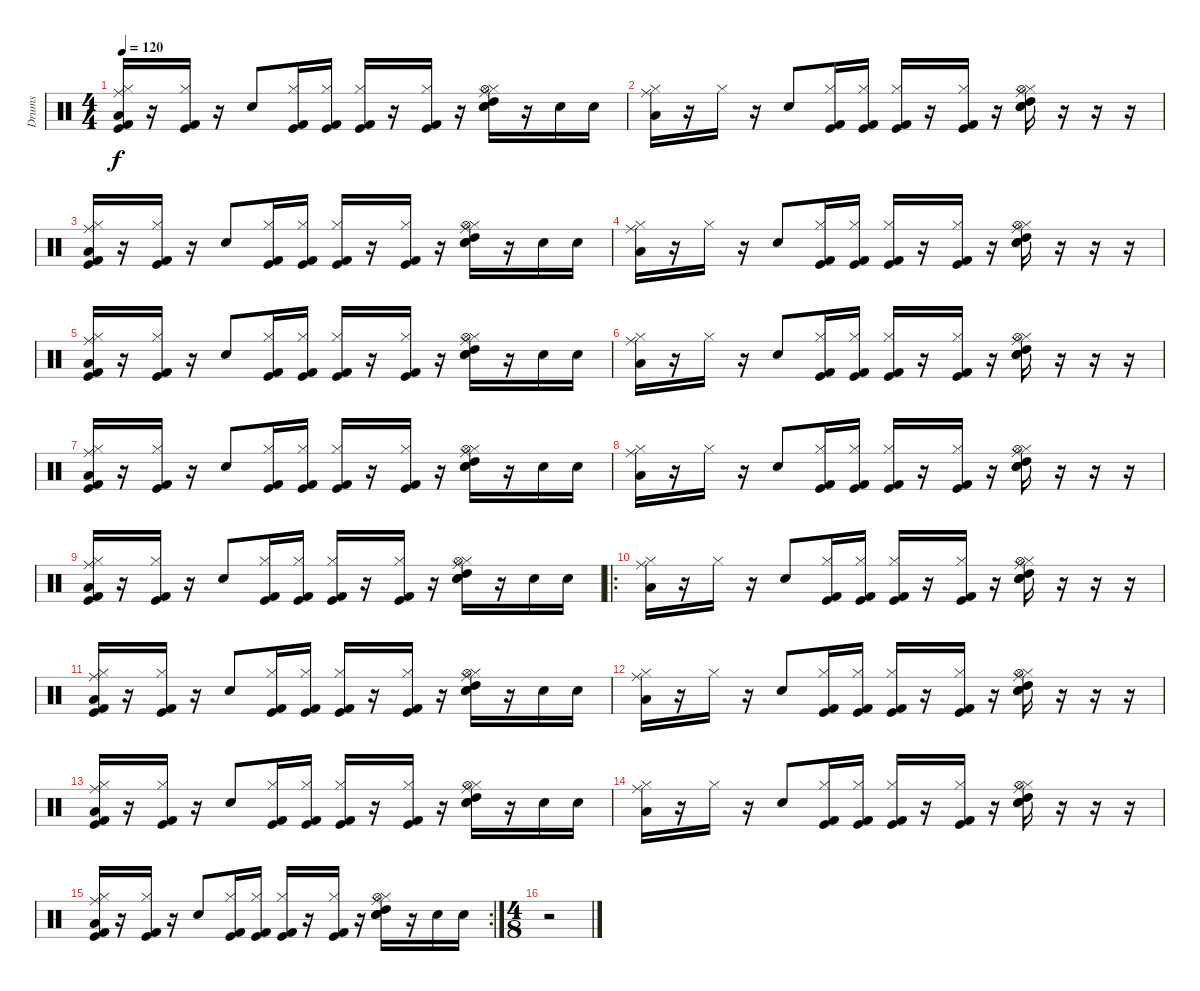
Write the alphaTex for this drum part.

\track ("Drums" "Drums") {instrument percussion}
\staff {score}
\articulation defaults
\ts (4 4)
\tempo 120
\clef neutral
\ks c
("Kick (hit)" "Hi-Hat (closed)" "Ride (middle)" "Low Tom (hit)" "Kick (hit) 2").16{dy f} r.16 ("Kick (hit)" "Hi-Hat (closed)" "Kick (hit) 2").16 r.16 "Snare (hit) 2".8 ("Kick (hit)" "Hi-Hat (closed)" "Kick (hit) 2").16 ("Kick (hit)" "Hi-Hat (closed)" "Kick (hit) 2").16 ("Kick (hit)" "Hi-Hat (closed)" "Kick (hit) 2").16 r.16 ("Kick (hit)" "Hi-Hat (closed)" "Kick (hit) 2").16 r.16 ("Snare (hit) 2" "Ride (middle)" "Hi-Hat (closed)" "Hi-Hat (open)" "High Tom (hit)" "Electric Snare (hit)").16 r.16 "Electric Snare (hit)".16 "Electric Snare (hit)".16 |
("Hi-Hat (closed)" "Ride (middle)" "Low Tom (hit)").16 r.16 "Hi-Hat (closed)".16 r.16 "Snare (hit) 2".8 ("Kick (hit)" "Hi-Hat (closed)" "Kick (hit) 2").16 ("Kick (hit)" "Hi-Hat (closed)" "Kick (hit) 2").16 ("Kick (hit)" "Hi-Hat (closed)" "Kick (hit) 2").16 r.16 ("Kick (hit)" "Hi-Hat (closed)" "Kick (hit) 2").16 r.16 ("Snare (hit) 2" "Ride (middle)" "Hi-Hat (closed)" "Hi-Hat (open)" "High Tom (hit)" "Electric Snare (hit)").16 r.16 r.16 r.16 |
("Kick (hit)" "Hi-Hat (closed)" "Ride (middle)" "Low Tom (hit)" "Kick (hit) 2").16 r.16 ("Kick (hit)" "Hi-Hat (closed)" "Kick (hit) 2").16 r.16 "Snare (hit) 2".8 ("Kick (hit)" "Hi-Hat (closed)" "Kick (hit) 2").16 ("Kick (hit)" "Hi-Hat (closed)" "Kick (hit) 2").16 ("Kick (hit)" "Hi-Hat (closed)" "Kick (hit) 2").16 r.16 ("Kick (hit)" "Hi-Hat (closed)" "Kick (hit) 2").16 r.16 ("Snare (hit) 2" "Ride (middle)" "Hi-Hat (closed)" "Hi-Hat (open)" "High Tom (hit)" "Electric Snare (hit)").16 r.16 "Electric Snare (hit)".16 "Electric Snare (hit)".16 |
("Hi-Hat (closed)" "Ride (middle)" "Low Tom (hit)").16 r.16 "Hi-Hat (closed)".16 r.16 "Snare (hit) 2".8 ("Kick (hit)" "Hi-Hat (closed)" "Kick (hit) 2").16 ("Kick (hit)" "Hi-Hat (closed)" "Kick (hit) 2").16 ("Kick (hit)" "Hi-Hat (closed)" "Kick (hit) 2").16 r.16 ("Kick (hit)" "Hi-Hat (closed)" "Kick (hit) 2").16 r.16 ("Snare (hit) 2" "Ride (middle)" "Hi-Hat (closed)" "Hi-Hat (open)" "High Tom (hit)" "Electric Snare (hit)").16 r.16 r.16 r.16 |
("Kick (hit)" "Hi-Hat (closed)" "Ride (middle)" "Low Tom (hit)" "Kick (hit) 2").16 r.16 ("Kick (hit)" "Hi-Hat (closed)" "Kick (hit) 2").16 r.16 "Snare (hit) 2".8 ("Kick (hit)" "Hi-Hat (closed)" "Kick (hit) 2").16 ("Kick (hit)" "Hi-Hat (closed)" "Kick (hit) 2").16 ("Kick (hit)" "Hi-Hat (closed)" "Kick (hit) 2").16 r.16 ("Kick (hit)" "Hi-Hat (closed)" "Kick (hit) 2").16 r.16 ("Snare (hit) 2" "Ride (middle)" "Hi-Hat (closed)" "Hi-Hat (open)" "High Tom (hit)" "Electric Snare (hit)").16 r.16 "Electric Snare (hit)".16 "Electric Snare (hit)".16 |
("Hi-Hat (closed)" "Ride (middle)" "Low Tom (hit)").16 r.16 "Hi-Hat (closed)".16 r.16 "Snare (hit) 2".8 ("Kick (hit)" "Hi-Hat (closed)" "Kick (hit) 2").16 ("Kick (hit)" "Hi-Hat (closed)" "Kick (hit) 2").16 ("Kick (hit)" "Hi-Hat (closed)" "Kick (hit) 2").16 r.16 ("Kick (hit)" "Hi-Hat (closed)" "Kick (hit) 2").16 r.16 ("Snare (hit) 2" "Ride (middle)" "Hi-Hat (closed)" "Hi-Hat (open)" "High Tom (hit)" "Electric Snare (hit)").16 r.16 r.16 r.16 |
("Kick (hit)" "Hi-Hat (closed)" "Ride (middle)" "Low Tom (hit)" "Kick (hit) 2").16 r.16 ("Kick (hit)" "Hi-Hat (closed)" "Kick (hit) 2").16 r.16 "Snare (hit) 2".8 ("Kick (hit)" "Hi-Hat (closed)" "Kick (hit) 2").16 ("Kick (hit)" "Hi-Hat (closed)" "Kick (hit) 2").16 ("Kick (hit)" "Hi-Hat (closed)" "Kick (hit) 2").16 r.16 ("Kick (hit)" "Hi-Hat (closed)" "Kick (hit) 2").16 r.16 ("Snare (hit) 2" "Ride (middle)" "Hi-Hat (closed)" "Hi-Hat (open)" "High Tom (hit)" "Electric Snare (hit)").16 r.16 "Electric Snare (hit)".16 "Electric Snare (hit)".16 |
("Hi-Hat (closed)" "Ride (middle)" "Low Tom (hit)").16 r.16 "Hi-Hat (closed)".16 r.16 "Snare (hit) 2".8 ("Kick (hit)" "Hi-Hat (closed)" "Kick (hit) 2").16 ("Kick (hit)" "Hi-Hat (closed)" "Kick (hit) 2").16 ("Kick (hit)" "Hi-Hat (closed)" "Kick (hit) 2").16 r.16 ("Kick (hit)" "Hi-Hat (closed)" "Kick (hit) 2").16 r.16 ("Snare (hit) 2" "Ride (middle)" "Hi-Hat (closed)" "Hi-Hat (open)" "High Tom (hit)" "Electric Snare (hit)").16 r.16 r.16 r.16 |
("Kick (hit)" "Hi-Hat (closed)" "Ride (middle)" "Low Tom (hit)" "Kick (hit) 2").16 r.16 ("Kick (hit)" "Hi-Hat (closed)" "Kick (hit) 2").16 r.16 "Snare (hit) 2".8 ("Kick (hit)" "Hi-Hat (closed)" "Kick (hit) 2").16 ("Kick (hit)" "Hi-Hat (closed)" "Kick (hit) 2").16 ("Kick (hit)" "Hi-Hat (closed)" "Kick (hit) 2").16 r.16 ("Kick (hit)" "Hi-Hat (closed)" "Kick (hit) 2").16 r.16 ("Snare (hit) 2" "Ride (middle)" "Hi-Hat (closed)" "Hi-Hat (open)" "High Tom (hit)" "Electric Snare (hit)").16 r.16 "Electric Snare (hit)".16 "Electric Snare (hit)".16 |
\ro
("Hi-Hat (closed)" "Ride (middle)" "Low Tom (hit)").16 r.16 "Hi-Hat (closed)".16 r.16 "Snare (hit) 2".8 ("Kick (hit)" "Hi-Hat (closed)" "Kick (hit) 2").16 ("Kick (hit)" "Hi-Hat (closed)" "Kick (hit) 2").16 ("Kick (hit)" "Hi-Hat (closed)" "Kick (hit) 2").16 r.16 ("Kick (hit)" "Hi-Hat (closed)" "Kick (hit) 2").16 r.16 ("Snare (hit) 2" "Ride (middle)" "Hi-Hat (closed)" "Hi-Hat (open)" "High Tom (hit)" "Electric Snare (hit)").16 r.16 r.16 r.16 |
("Kick (hit)" "Hi-Hat (closed)" "Ride (middle)" "Low Tom (hit)" "Kick (hit) 2").16 r.16 ("Kick (hit)" "Hi-Hat (closed)" "Kick (hit) 2").16 r.16 "Snare (hit) 2".8 ("Kick (hit)" "Hi-Hat (closed)" "Kick (hit) 2").16 ("Kick (hit)" "Hi-Hat (closed)" "Kick (hit) 2").16 ("Kick (hit)" "Hi-Hat (closed)" "Kick (hit) 2").16 r.16 ("Kick (hit)" "Hi-Hat (closed)" "Kick (hit) 2").16 r.16 ("Snare (hit) 2" "Ride (middle)" "Hi-Hat (closed)" "Hi-Hat (open)" "High Tom (hit)" "Electric Snare (hit)").16 r.16 "Electric Snare (hit)".16 "Electric Snare (hit)".16 |
("Hi-Hat (closed)" "Ride (middle)" "Low Tom (hit)").16 r.16 "Hi-Hat (closed)".16 r.16 "Snare (hit) 2".8 ("Kick (hit)" "Hi-Hat (closed)" "Kick (hit) 2").16 ("Kick (hit)" "Hi-Hat (closed)" "Kick (hit) 2").16 ("Kick (hit)" "Hi-Hat (closed)" "Kick (hit) 2").16 r.16 ("Kick (hit)" "Hi-Hat (closed)" "Kick (hit) 2").16 r.16 ("Snare (hit) 2" "Ride (middle)" "Hi-Hat (closed)" "Hi-Hat (open)" "High Tom (hit)" "Electric Snare (hit)").16 r.16 r.16 r.16 |
("Kick (hit)" "Hi-Hat (closed)" "Ride (middle)" "Low Tom (hit)" "Kick (hit) 2").16 r.16 ("Kick (hit)" "Hi-Hat (closed)" "Kick (hit) 2").16 r.16 "Snare (hit) 2".8 ("Kick (hit)" "Hi-Hat (closed)" "Kick (hit) 2").16 ("Kick (hit)" "Hi-Hat (closed)" "Kick (hit) 2").16 ("Kick (hit)" "Hi-Hat (closed)" "Kick (hit) 2").16 r.16 ("Kick (hit)" "Hi-Hat (closed)" "Kick (hit) 2").16 r.16 ("Snare (hit) 2" "Ride (middle)" "Hi-Hat (closed)" "Hi-Hat (open)" "High Tom (hit)" "Electric Snare (hit)").16 r.16 "Electric Snare (hit)".16 "Electric Snare (hit)".16 |
("Hi-Hat (closed)" "Ride (middle)" "Low Tom (hit)").16 r.16 "Hi-Hat (closed)".16 r.16 "Snare (hit) 2".8 ("Kick (hit)" "Hi-Hat (closed)" "Kick (hit) 2").16 ("Kick (hit)" "Hi-Hat (closed)" "Kick (hit) 2").16 ("Kick (hit)" "Hi-Hat (closed)" "Kick (hit) 2").16 r.16 ("Kick (hit)" "Hi-Hat (closed)" "Kick (hit) 2").16 r.16 ("Snare (hit) 2" "Ride (middle)" "Hi-Hat (closed)" "Hi-Hat (open)" "High Tom (hit)" "Electric Snare (hit)").16 r.16 r.16 r.16 |
\rc 2
("Kick (hit)" "Hi-Hat (closed)" "Ride (middle)" "Low Tom (hit)" "Kick (hit) 2").16 r.16 ("Kick (hit)" "Hi-Hat (closed)" "Kick (hit) 2").16 r.16 "Snare (hit) 2".8 ("Kick (hit)" "Hi-Hat (closed)" "Kick (hit) 2").16 ("Kick (hit)" "Hi-Hat (closed)" "Kick (hit) 2").16 ("Kick (hit)" "Hi-Hat (closed)" "Kick (hit) 2").16 r.16 ("Kick (hit)" "Hi-Hat (closed)" "Kick (hit) 2").16 r.16 ("Snare (hit) 2" "Ride (middle)" "Hi-Hat (closed)" "Hi-Hat (open)" "High Tom (hit)" "Electric Snare (hit)").16 r.16 "Electric Snare (hit)".16 "Electric Snare (hit)".16 |
\ts (4 8)
r.2
